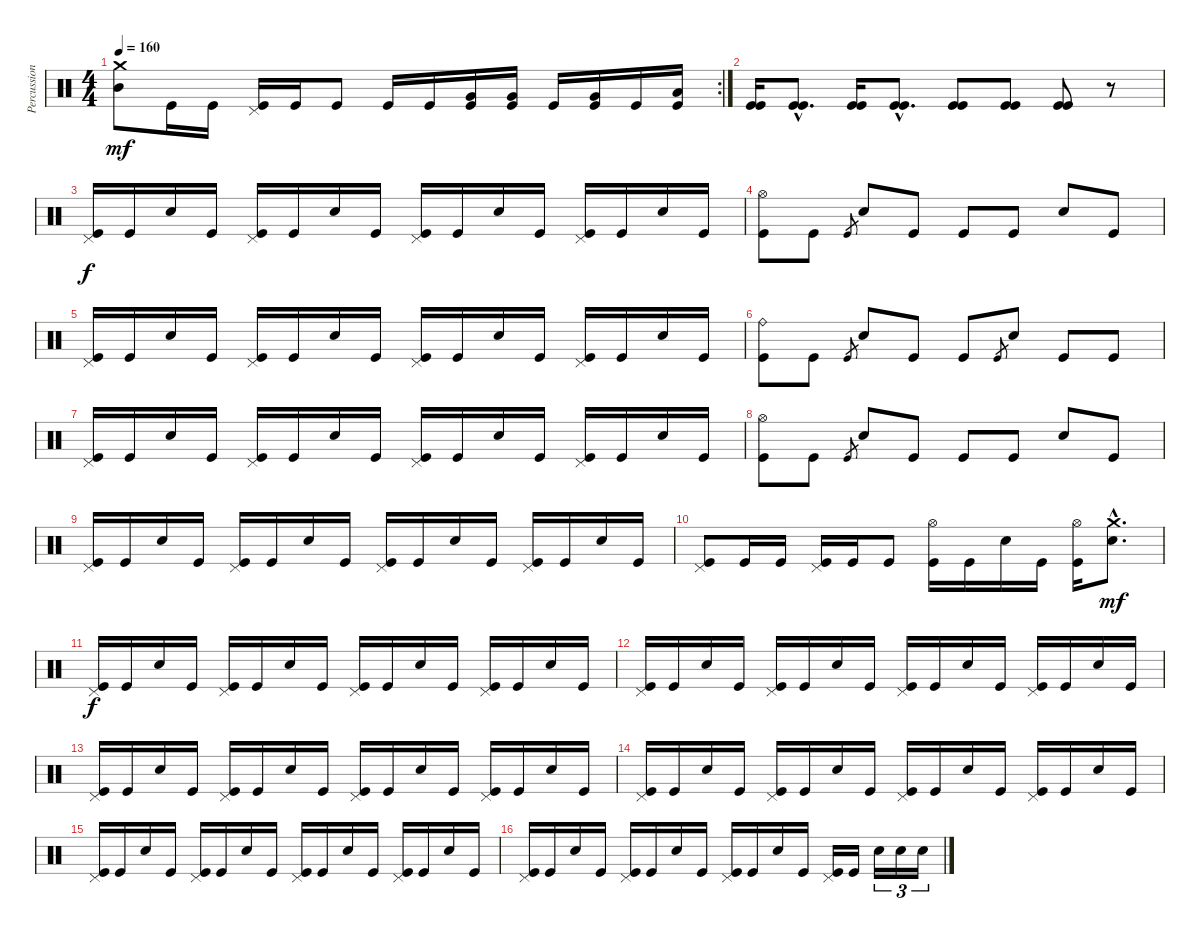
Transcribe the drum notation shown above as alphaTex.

\track ("Percussion" "Percussion") {instrument percussion}
\staff {score}
\articulation defaults
\rc 2
\ts (4 4)
\tempo 160
\clef neutral
\ks c
("Mid Tom (hit)" "Crash medium (hit)").8{dy mf} "Kick (hit)".16 "Kick (hit)".16 ("Kick (hit)" "Pedal Hi-Hat (hit)").16 "Kick (hit)".16 "Kick (hit)".8 "Kick (hit)".16 "Kick (hit)".16 ("Kick (hit)" "Very Low Tom (hit)").16 ("Kick (hit)" "Very Low Tom (hit)").16 "Kick (hit)".16 ("Kick (hit)" "Very Low Tom (hit)").16 "Kick (hit)".16 ("Kick (hit)" "Low Floor Tom (hit)").16 |
("Kick (hit)" "Kick (hit)").16 ("Kick (hit)"{hac} "Kick (hit)"{hac}).8{d} ("Kick (hit)" "Kick (hit)").16 ("Kick (hit)"{hac} "Kick (hit)"{hac}).8{d} ("Kick (hit)" "Kick (hit)").8 ("Kick (hit)" "Kick (hit)").8 ("Kick (hit)" "Kick (hit)").8 r.8 |
("Kick (hit)" "Pedal Hi-Hat (hit)").16{dy f} "Kick (hit)".16 "Electric Snare (hit)".16 "Kick (hit)".16 ("Kick (hit)" "Pedal Hi-Hat (hit)").16 "Kick (hit)".16 "Electric Snare (hit)".16 "Kick (hit)".16 ("Kick (hit)" "Pedal Hi-Hat (hit)").16 "Kick (hit)".16 "Electric Snare (hit)".16 "Kick (hit)".16 ("Kick (hit)" "Pedal Hi-Hat (hit)").16 "Kick (hit)".16 "Electric Snare (hit)".16 "Kick (hit)".16 |
("Kick (hit)" "Hi-Hat (open)").8 "Kick (hit)".8 "Kick (hit)".8{gr} "Electric Snare (hit)".8 "Kick (hit)".8 "Kick (hit)".8 "Kick (hit)".8 "Electric Snare (hit)".8 "Kick (hit)".8 |
("Kick (hit)" "Pedal Hi-Hat (hit)").16 "Kick (hit)".16 "Electric Snare (hit)".16 "Kick (hit)".16 ("Kick (hit)" "Pedal Hi-Hat (hit)").16 "Kick (hit)".16 "Electric Snare (hit)".16 "Kick (hit)".16 ("Kick (hit)" "Pedal Hi-Hat (hit)").16 "Kick (hit)".16 "Electric Snare (hit)".16 "Kick (hit)".16 ("Kick (hit)" "Pedal Hi-Hat (hit)").16 "Kick (hit)".16 "Electric Snare (hit)".16 "Kick (hit)".16 |
("Kick (hit)" "Ride (bell)").8 "Kick (hit)".8 "Kick (hit)".8{gr} "Electric Snare (hit)".8 "Kick (hit)".8 "Kick (hit)".8 "Kick (hit)".8{gr} "Electric Snare (hit)".8 "Kick (hit)".8 "Kick (hit)".8 |
("Kick (hit)" "Pedal Hi-Hat (hit)").16 "Kick (hit)".16 "Electric Snare (hit)".16 "Kick (hit)".16 ("Kick (hit)" "Pedal Hi-Hat (hit)").16 "Kick (hit)".16 "Electric Snare (hit)".16 "Kick (hit)".16 ("Kick (hit)" "Pedal Hi-Hat (hit)").16 "Kick (hit)".16 "Electric Snare (hit)".16 "Kick (hit)".16 ("Kick (hit)" "Pedal Hi-Hat (hit)").16 "Kick (hit)".16 "Electric Snare (hit)".16 "Kick (hit)".16 |
("Kick (hit)" "Hi-Hat (open)").8 "Kick (hit)".8 "Kick (hit)".8{gr} "Electric Snare (hit)".8 "Kick (hit)".8 "Kick (hit)".8 "Kick (hit)".8 "Electric Snare (hit)".8 "Kick (hit)".8 |
("Kick (hit)" "Pedal Hi-Hat (hit)").16 "Kick (hit)".16 "Electric Snare (hit)".16 "Kick (hit)".16 ("Kick (hit)" "Pedal Hi-Hat (hit)").16 "Kick (hit)".16 "Electric Snare (hit)".16 "Kick (hit)".16 ("Kick (hit)" "Pedal Hi-Hat (hit)").16 "Kick (hit)".16 "Electric Snare (hit)".16 "Kick (hit)".16 ("Kick (hit)" "Pedal Hi-Hat (hit)").16 "Kick (hit)".16 "Electric Snare (hit)".16 "Kick (hit)".16 |
("Kick (hit)" "Pedal Hi-Hat (hit)").8 "Kick (hit)".16 "Kick (hit)".16 ("Kick (hit)" "Pedal Hi-Hat (hit)").16 "Kick (hit)".16 "Kick (hit)".8 ("Kick (hit)" "Hi-Hat (open)").16 "Kick (hit)".16 "Snare (hit) 2".16 "Kick (hit)".16 ("Kick (hit)" "Hi-Hat (open)").16 ("Snare (hit) 2"{hac} "Crash medium (hit)"{hac}).8{d dy mf} |
("Kick (hit)" "Pedal Hi-Hat (hit)").16{dy f} "Kick (hit)".16 "Electric Snare (hit)".16 "Kick (hit)".16 ("Kick (hit)" "Pedal Hi-Hat (hit)").16 "Kick (hit)".16 "Electric Snare (hit)".16 "Kick (hit)".16 ("Kick (hit)" "Pedal Hi-Hat (hit)").16 "Kick (hit)".16 "Electric Snare (hit)".16 "Kick (hit)".16 ("Kick (hit)" "Pedal Hi-Hat (hit)").16 "Kick (hit)".16 "Electric Snare (hit)".16 "Kick (hit)".16 |
("Kick (hit)" "Pedal Hi-Hat (hit)").16 "Kick (hit)".16 "Electric Snare (hit)".16 "Kick (hit)".16 ("Kick (hit)" "Pedal Hi-Hat (hit)").16 "Kick (hit)".16 "Electric Snare (hit)".16 "Kick (hit)".16 ("Kick (hit)" "Pedal Hi-Hat (hit)").16 "Kick (hit)".16 "Electric Snare (hit)".16 "Kick (hit)".16 ("Kick (hit)" "Pedal Hi-Hat (hit)").16 "Kick (hit)".16 "Electric Snare (hit)".16 "Kick (hit)".16 |
("Kick (hit)" "Pedal Hi-Hat (hit)").16 "Kick (hit)".16 "Electric Snare (hit)".16 "Kick (hit)".16 ("Kick (hit)" "Pedal Hi-Hat (hit)").16 "Kick (hit)".16 "Electric Snare (hit)".16 "Kick (hit)".16 ("Kick (hit)" "Pedal Hi-Hat (hit)").16 "Kick (hit)".16 "Electric Snare (hit)".16 "Kick (hit)".16 ("Kick (hit)" "Pedal Hi-Hat (hit)").16 "Kick (hit)".16 "Electric Snare (hit)".16 "Kick (hit)".16 |
("Kick (hit)" "Pedal Hi-Hat (hit)").16 "Kick (hit)".16 "Electric Snare (hit)".16 "Kick (hit)".16 ("Kick (hit)" "Pedal Hi-Hat (hit)").16 "Kick (hit)".16 "Electric Snare (hit)".16 "Kick (hit)".16 ("Kick (hit)" "Pedal Hi-Hat (hit)").16 "Kick (hit)".16 "Electric Snare (hit)".16 "Kick (hit)".16 ("Kick (hit)" "Pedal Hi-Hat (hit)").16 "Kick (hit)".16 "Electric Snare (hit)".16 "Kick (hit)".16 |
("Kick (hit)" "Pedal Hi-Hat (hit)").16 "Kick (hit)".16 "Electric Snare (hit)".16 "Kick (hit)".16 ("Kick (hit)" "Pedal Hi-Hat (hit)").16 "Kick (hit)".16 "Electric Snare (hit)".16 "Kick (hit)".16 ("Kick (hit)" "Pedal Hi-Hat (hit)").16 "Kick (hit)".16 "Electric Snare (hit)".16 "Kick (hit)".16 ("Kick (hit)" "Pedal Hi-Hat (hit)").16 "Kick (hit)".16 "Electric Snare (hit)".16 "Kick (hit)".16 |
("Kick (hit)" "Pedal Hi-Hat (hit)").16 "Kick (hit)".16 "Electric Snare (hit)".16 "Kick (hit)".16 ("Kick (hit)" "Pedal Hi-Hat (hit)").16 "Kick (hit)".16 "Electric Snare (hit)".16 "Kick (hit)".16 ("Kick (hit)" "Pedal Hi-Hat (hit)").16 "Kick (hit)".16 "Electric Snare (hit)".16 "Kick (hit)".16 ("Kick (hit)" "Pedal Hi-Hat (hit)").16 "Kick (hit)".16 "Electric Snare (hit)".16{tu (3 2)} "Electric Snare (hit)".16{tu (3 2)} "Electric Snare (hit)".16{tu (3 2)}
